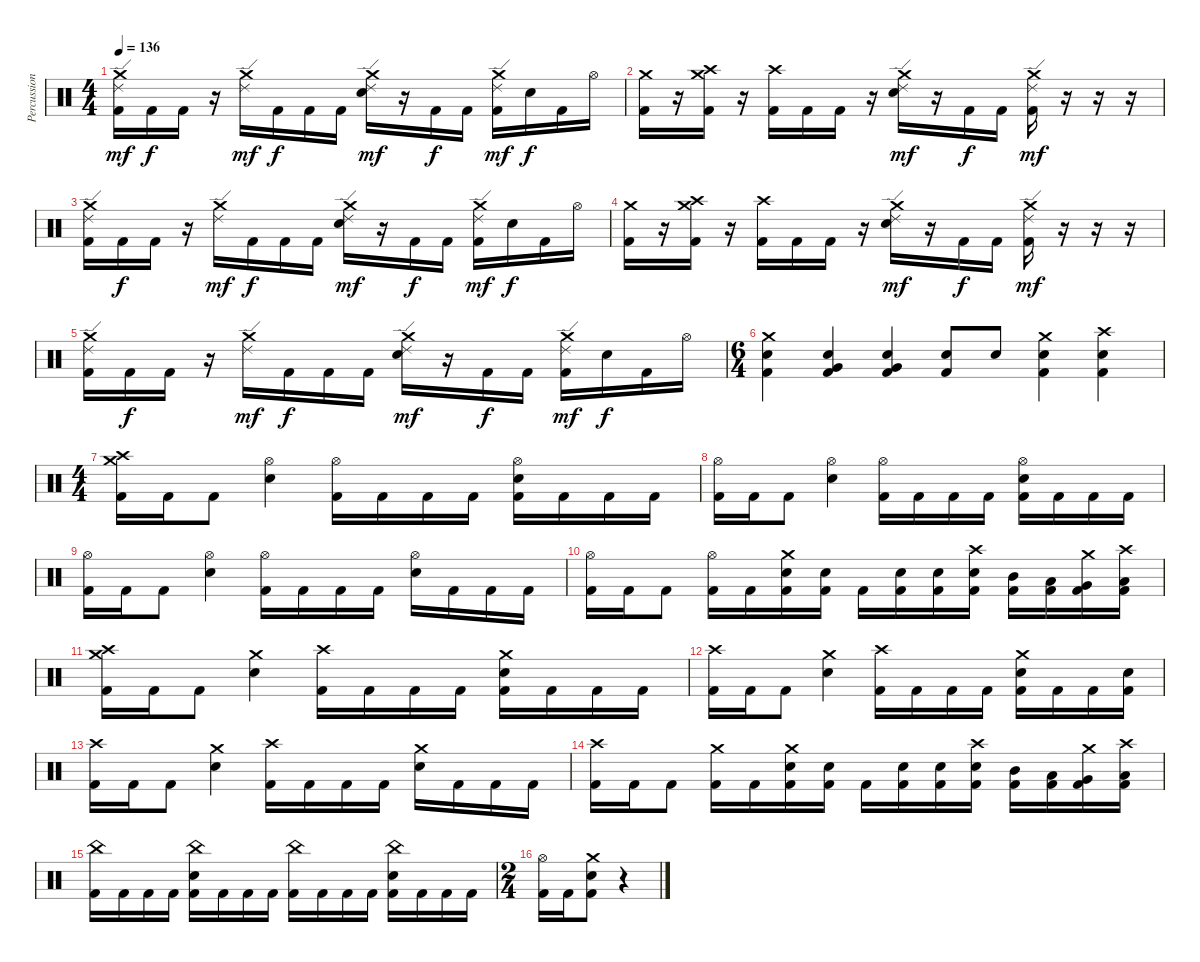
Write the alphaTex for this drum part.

\track ("Percussion" "Percussion") {instrument percussion}
\staff {score}
\articulation defaults
\ts (4 4)
\tempo 136
\clef neutral
\ks c
("Crash medium (hit)" "Ride (edge) 2" "Kick (hit) 2").16{dy mf} "Kick (hit) 2".16{dy f} "Kick (hit) 2".16 r.16 ("Crash medium (hit)" "Ride (edge) 2").16{dy mf} "Kick (hit) 2".16{dy f} "Kick (hit) 2".16 "Kick (hit) 2".16 ("Crash medium (hit)" "Ride (edge) 2" "Electric Snare (hit)").16{dy mf} r.16 "Kick (hit) 2".16{dy f} "Kick (hit) 2".16 ("Crash medium (hit)" "Ride (edge) 2" "Kick (hit) 2").16{dy mf} "Electric Snare (hit)".16{dy f} "Kick (hit) 2".16 "Hi-Hat (open)".16 |
("Crash medium (hit)" "Kick (hit) 2").16 r.16 ("Crash medium (hit)" "Crash high (hit)" "Kick (hit) 2").16 r.16 ("Crash high (hit)" "Kick (hit) 2").16 "Kick (hit) 2".16 "Kick (hit) 2".16 r.16 ("Crash medium (hit)" "Ride (edge) 2" "Electric Snare (hit)").16{dy mf} r.16 "Kick (hit) 2".16{dy f} "Kick (hit) 2".16 ("Crash medium (hit)" "Ride (edge) 2" "Kick (hit) 2").16{dy mf} r.16 r.16 r.16 |
("Crash medium (hit)" "Ride (edge) 2" "Kick (hit) 2").16 "Kick (hit) 2".16{dy f} "Kick (hit) 2".16 r.16 ("Crash medium (hit)" "Ride (edge) 2").16{dy mf} "Kick (hit) 2".16{dy f} "Kick (hit) 2".16 "Kick (hit) 2".16 ("Crash medium (hit)" "Ride (edge) 2" "Electric Snare (hit)").16{dy mf} r.16 "Kick (hit) 2".16{dy f} "Kick (hit) 2".16 ("Crash medium (hit)" "Ride (edge) 2" "Kick (hit) 2").16{dy mf} "Electric Snare (hit)".16{dy f} "Kick (hit) 2".16 "Hi-Hat (open)".16 |
("Crash medium (hit)" "Kick (hit) 2").16 r.16 ("Crash medium (hit)" "Crash high (hit)" "Kick (hit) 2").16 r.16 ("Crash high (hit)" "Kick (hit) 2").16 "Kick (hit) 2".16 "Kick (hit) 2".16 r.16 ("Crash medium (hit)" "Ride (edge) 2" "Electric Snare (hit)").16{dy mf} r.16 "Kick (hit) 2".16{dy f} "Kick (hit) 2".16 ("Crash medium (hit)" "Ride (edge) 2" "Kick (hit) 2").16{dy mf} r.16 r.16 r.16 |
("Crash medium (hit)" "Ride (edge) 2" "Kick (hit) 2").16 "Kick (hit) 2".16{dy f} "Kick (hit) 2".16 r.16 ("Crash medium (hit)" "Ride (edge) 2").16{dy mf} "Kick (hit) 2".16{dy f} "Kick (hit) 2".16 "Kick (hit) 2".16 ("Crash medium (hit)" "Ride (edge) 2" "Electric Snare (hit)").16{dy mf} r.16 "Kick (hit) 2".16{dy f} "Kick (hit) 2".16 ("Crash medium (hit)" "Ride (edge) 2" "Kick (hit) 2").16{dy mf} "Electric Snare (hit)".16{dy f} "Kick (hit) 2".16 "Hi-Hat (open)".16 |
\ts (6 4)
("Crash medium (hit)" "Electric Snare (hit)" "Kick (hit) 2").4 ("Electric Snare (hit)" "Very Low Tom (hit)" "Kick (hit) 2").4 ("Electric Snare (hit)" "Very Low Tom (hit)" "Kick (hit) 2").4 ("Electric Snare (hit)" "Kick (hit) 2").8 "Electric Snare (hit)".8 ("Crash medium (hit)" "Electric Snare (hit)" "Kick (hit) 2").4 ("Crash high (hit)" "Electric Snare (hit)" "Kick (hit) 2").4 |
\ts (4 4)
("Crash medium (hit)" "Crash high (hit)" "Kick (hit) 2").16 "Kick (hit) 2".16 "Kick (hit) 2".8 ("Hi-Hat (open)" "Electric Snare (hit)").4 ("Hi-Hat (open)" "Kick (hit) 2").16 "Kick (hit) 2".16 "Kick (hit) 2".16 "Kick (hit) 2".16 ("Hi-Hat (open)" "Electric Snare (hit)" "Kick (hit) 2").16 "Kick (hit) 2".16 "Kick (hit) 2".16 "Kick (hit) 2".16 |
("Hi-Hat (open)" "Kick (hit) 2").16 "Kick (hit) 2".16 "Kick (hit) 2".8 ("Hi-Hat (open)" "Electric Snare (hit)").4 ("Hi-Hat (open)" "Kick (hit) 2").16 "Kick (hit) 2".16 "Kick (hit) 2".16 "Kick (hit) 2".16 ("Hi-Hat (open)" "Electric Snare (hit)" "Kick (hit) 2").16 "Kick (hit) 2".16 "Kick (hit) 2".16 "Kick (hit) 2".16 |
("Hi-Hat (open)" "Kick (hit) 2").16 "Kick (hit) 2".16 "Kick (hit) 2".8 ("Hi-Hat (open)" "Electric Snare (hit)").4 ("Hi-Hat (open)" "Kick (hit) 2").16 "Kick (hit) 2".16 "Kick (hit) 2".16 "Kick (hit) 2".16 ("Hi-Hat (open)" "Electric Snare (hit)").16 "Kick (hit) 2".16 "Kick (hit) 2".16 "Kick (hit) 2".16 |
("Hi-Hat (open)" "Kick (hit) 2").16 "Kick (hit) 2".16 "Kick (hit) 2".8 ("Hi-Hat (open)" "Kick (hit) 2").16 "Kick (hit) 2".16 ("Crash medium (hit)" "Electric Snare (hit)" "Kick (hit) 2").16 ("Electric Snare (hit)" "Kick (hit) 2").16 "Kick (hit) 2".16 ("Snare (hit) 2" "Kick (hit) 2").16 ("Electric Snare (hit)" "Kick (hit) 2").16 ("Crash high (hit)" "Electric Snare (hit)" "Kick (hit) 2").16 ("Mid Tom (hit)" "Kick (hit) 2").16 ("Low Tom (hit)" "Kick (hit) 2").16 ("Crash medium (hit)" "Very Low Tom (hit)" "Kick (hit) 2").16 ("Crash high (hit)" "Low Floor Tom (hit)" "Kick (hit) 2").16 |
("Crash medium (hit)" "Crash high (hit)" "Kick (hit) 2").16 "Kick (hit) 2".16 "Kick (hit) 2".8 ("Crash medium (hit)" "Electric Snare (hit)").4 ("Crash high (hit)" "Kick (hit) 2").16 "Kick (hit) 2".16 "Kick (hit) 2".16 "Kick (hit) 2".16 ("Crash medium (hit)" "Electric Snare (hit)" "Kick (hit) 2").16 "Kick (hit) 2".16 "Kick (hit) 2".16 "Kick (hit) 2".16 |
("Crash high (hit)" "Kick (hit) 2").16 "Kick (hit) 2".16 "Kick (hit) 2".8 ("Crash medium (hit)" "Electric Snare (hit)").4 ("Crash high (hit)" "Kick (hit) 2").16 "Kick (hit) 2".16 "Kick (hit) 2".16 "Kick (hit) 2".16 ("Crash medium (hit)" "Electric Snare (hit)" "Kick (hit) 2").16 "Kick (hit) 2".16 "Kick (hit) 2".16 ("Electric Snare (hit)" "Kick (hit) 2").16 |
("Crash high (hit)" "Kick (hit) 2").16 "Kick (hit) 2".16 "Kick (hit) 2".8 ("Crash medium (hit)" "Electric Snare (hit)").4 ("Crash high (hit)" "Kick (hit) 2").16 "Kick (hit) 2".16 "Kick (hit) 2".16 "Kick (hit) 2".16 ("Crash medium (hit)" "Electric Snare (hit)").16 "Kick (hit) 2".16 "Kick (hit) 2".16 "Kick (hit) 2".16 |
("Crash high (hit)" "Kick (hit) 2").16 "Kick (hit) 2".16 "Kick (hit) 2".8 ("Crash medium (hit)" "Kick (hit) 2").16 "Kick (hit) 2".16 ("Crash medium (hit)" "Electric Snare (hit)" "Kick (hit) 2").16 ("Electric Snare (hit)" "Kick (hit) 2").16 "Kick (hit) 2".16 ("Snare (hit) 2" "Kick (hit) 2").16 ("Electric Snare (hit)" "Kick (hit) 2").16 ("Crash high (hit)" "Electric Snare (hit)" "Kick (hit) 2").16 ("Mid Tom (hit)" "Kick (hit) 2").16 ("Low Tom (hit)" "Kick (hit) 2").16 ("Crash medium (hit)" "Very Low Tom (hit)" "Kick (hit) 2").16 ("Crash high (hit)" "Low Floor Tom (hit)" "Kick (hit) 2").16 |
("China (hit)" "Kick (hit) 2").16 "Kick (hit) 2".16 "Kick (hit) 2".16 "Kick (hit) 2".16 ("China (hit)" "Electric Snare (hit)" "Kick (hit) 2").16 "Kick (hit) 2".16 "Kick (hit) 2".16 "Kick (hit) 2".16 ("China (hit)" "Kick (hit) 2").16 "Kick (hit) 2".16 "Kick (hit) 2".16 "Kick (hit) 2".16 ("China (hit)" "Electric Snare (hit)" "Kick (hit) 2").16 "Kick (hit) 2".16 "Kick (hit) 2".16 "Kick (hit) 2".16 |
\ts (2 4)
("Hi-Hat (open)" "Kick (hit) 2").16 "Kick (hit) 2".16 ("Crash medium (hit)" "Electric Snare (hit)" "Kick (hit) 2").8 r.4
